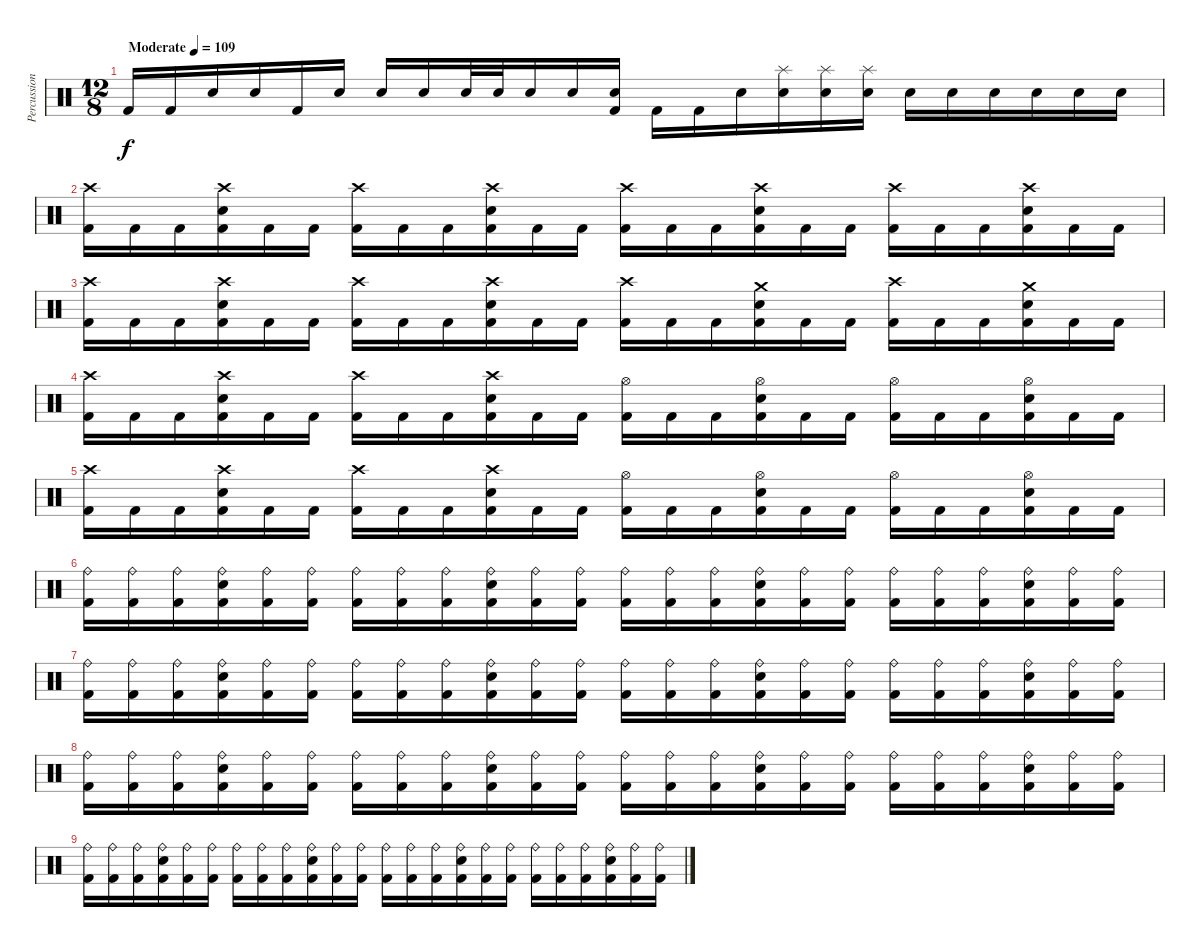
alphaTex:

\track ("Percussion" "Percussion") {instrument percussion}
\staff {score}
\articulation defaults
\ts (12 8)
\tempo (109 "Moderate")
\clef neutral
\ks c "Kick (hit) 2".16{dy f} "Kick (hit) 2".16 "Electric Snare (hit)".16 "Electric Snare (hit)".16 "Kick (hit) 2".16 "Electric Snare (hit)".16 "Electric Snare (hit)".16 "Electric Snare (hit)".16 "Electric Snare (hit)".32 "Electric Snare (hit)".32 "Electric Snare (hit)".16 "Electric Snare (hit)".16
("Electric Snare (hit)" "Kick (hit) 2").16 "Kick (hit) 2".16 "Kick (hit) 2".16 "Electric Snare (hit)".16 ("Splash (hit)" "Electric Snare (hit)").16 ("Splash (hit)" "Electric Snare (hit)").16 ("Splash (hit)" "Electric Snare (hit)").16 "Electric Snare (hit)".16 "Electric Snare (hit)".16 "Electric Snare (hit)".16 "Electric Snare (hit)".16 "Electric Snare (hit)".16 "Electric Snare (hit)".16 |
("Crash high (hit)" "Kick (hit) 2").16 "Kick (hit) 2".16 "Kick (hit) 2".16 ("Crash high (hit)" "Electric Snare (hit)" "Kick (hit) 2").16 "Kick (hit) 2".16 "Kick (hit) 2".16 ("Crash high (hit)" "Kick (hit) 2").16 "Kick (hit) 2".16 "Kick (hit) 2".16 ("Crash high (hit)" "Electric Snare (hit)" "Kick (hit) 2").16 "Kick (hit) 2".16 "Kick (hit) 2".16 ("Crash high (hit)" "Kick (hit) 2").16 "Kick (hit) 2".16 "Kick (hit) 2".16 ("Crash high (hit)" "Electric Snare (hit)" "Kick (hit) 2").16 "Kick (hit) 2".16 "Kick (hit) 2".16 ("Crash high (hit)" "Kick (hit) 2").16 "Kick (hit) 2".16 "Kick (hit) 2".16 ("Crash high (hit)" "Electric Snare (hit)" "Kick (hit) 2").16 "Kick (hit) 2".16 "Kick (hit) 2".16 |
("Crash high (hit)" "Kick (hit) 2").16 "Kick (hit) 2".16 "Kick (hit) 2".16 ("Crash high (hit)" "Electric Snare (hit)" "Kick (hit) 2").16 "Kick (hit) 2".16 "Kick (hit) 2".16 ("Crash high (hit)" "Kick (hit) 2").16 "Kick (hit) 2".16 "Kick (hit) 2".16 ("Crash high (hit)" "Electric Snare (hit)" "Kick (hit) 2").16 "Kick (hit) 2".16 "Kick (hit) 2".16 ("Crash high (hit)" "Kick (hit) 2").16 "Kick (hit) 2".16 "Kick (hit) 2".16 ("Crash medium (hit)" "Electric Snare (hit)" "Kick (hit) 2").16 "Kick (hit) 2".16 "Kick (hit) 2".16 ("Crash high (hit)" "Kick (hit) 2").16 "Kick (hit) 2".16 "Kick (hit) 2".16 ("Crash medium (hit)" "Electric Snare (hit)" "Kick (hit) 2").16 "Kick (hit) 2".16 "Kick (hit) 2".16 |
("Crash high (hit)" "Kick (hit) 2").16 "Kick (hit) 2".16 "Kick (hit) 2".16 ("Crash high (hit)" "Electric Snare (hit)" "Kick (hit) 2").16 "Kick (hit) 2".16 "Kick (hit) 2".16 ("Crash high (hit)" "Kick (hit) 2").16 "Kick (hit) 2".16 "Kick (hit) 2".16 ("Crash high (hit)" "Electric Snare (hit)" "Kick (hit) 2").16 "Kick (hit) 2".16 "Kick (hit) 2".16 ("Hi-Hat (open)" "Kick (hit) 2").16 "Kick (hit) 2".16 "Kick (hit) 2".16 ("Hi-Hat (open)" "Electric Snare (hit)" "Kick (hit) 2").16 "Kick (hit) 2".16 "Kick (hit) 2".16 ("Hi-Hat (open)" "Kick (hit) 2").16 "Kick (hit) 2".16 "Kick (hit) 2".16 ("Hi-Hat (open)" "Electric Snare (hit)" "Kick (hit) 2").16 "Kick (hit) 2".16 "Kick (hit) 2".16 |
("Crash high (hit)" "Kick (hit) 2").16 "Kick (hit) 2".16 "Kick (hit) 2".16 ("Crash high (hit)" "Electric Snare (hit)" "Kick (hit) 2").16 "Kick (hit) 2".16 "Kick (hit) 2".16 ("Crash high (hit)" "Kick (hit) 2").16 "Kick (hit) 2".16 "Kick (hit) 2".16 ("Crash high (hit)" "Electric Snare (hit)" "Kick (hit) 2").16 "Kick (hit) 2".16 "Kick (hit) 2".16 ("Hi-Hat (open)" "Kick (hit) 2").16 "Kick (hit) 2".16 "Kick (hit) 2".16 ("Hi-Hat (open)" "Electric Snare (hit)" "Kick (hit) 2").16 "Kick (hit) 2".16 "Kick (hit) 2".16 ("Hi-Hat (open)" "Kick (hit) 2").16 "Kick (hit) 2".16 "Kick (hit) 2".16 ("Hi-Hat (open)" "Electric Snare (hit)" "Kick (hit) 2").16 "Kick (hit) 2".16 "Kick (hit) 2".16 |
("Ride (bell)" "Kick (hit) 2").16 ("Ride (bell)" "Kick (hit) 2").16 ("Ride (bell)" "Kick (hit) 2").16 ("Ride (bell)" "Electric Snare (hit)" "Kick (hit) 2").16 ("Ride (bell)" "Kick (hit) 2").16 ("Ride (bell)" "Kick (hit) 2").16 ("Ride (bell)" "Kick (hit) 2").16 ("Ride (bell)" "Kick (hit) 2").16 ("Ride (bell)" "Kick (hit) 2").16 ("Ride (bell)" "Electric Snare (hit)" "Kick (hit) 2").16 ("Ride (bell)" "Kick (hit) 2").16 ("Ride (bell)" "Kick (hit) 2").16 ("Ride (bell)" "Kick (hit) 2").16 ("Ride (bell)" "Kick (hit) 2").16 ("Ride (bell)" "Kick (hit) 2").16 ("Ride (bell)" "Electric Snare (hit)" "Kick (hit) 2").16 ("Ride (bell)" "Kick (hit) 2").16 ("Ride (bell)" "Kick (hit) 2").16 ("Ride (bell)" "Kick (hit) 2").16 ("Ride (bell)" "Kick (hit) 2").16 ("Ride (bell)" "Kick (hit) 2").16 ("Ride (bell)" "Electric Snare (hit)" "Kick (hit) 2").16 ("Ride (bell)" "Kick (hit) 2").16 ("Ride (bell)" "Kick (hit) 2").16 |
("Ride (bell)" "Kick (hit) 2").16 ("Ride (bell)" "Kick (hit) 2").16 ("Ride (bell)" "Kick (hit) 2").16 ("Ride (bell)" "Electric Snare (hit)" "Kick (hit) 2").16 ("Ride (bell)" "Kick (hit) 2").16 ("Ride (bell)" "Kick (hit) 2").16 ("Ride (bell)" "Kick (hit) 2").16 ("Ride (bell)" "Kick (hit) 2").16 ("Ride (bell)" "Kick (hit) 2").16 ("Ride (bell)" "Electric Snare (hit)" "Kick (hit) 2").16 ("Ride (bell)" "Kick (hit) 2").16 ("Ride (bell)" "Kick (hit) 2").16 ("Ride (bell)" "Kick (hit) 2").16 ("Ride (bell)" "Kick (hit) 2").16 ("Ride (bell)" "Kick (hit) 2").16 ("Ride (bell)" "Electric Snare (hit)" "Kick (hit) 2").16 ("Ride (bell)" "Kick (hit) 2").16 ("Ride (bell)" "Kick (hit) 2").16 ("Ride (bell)" "Kick (hit) 2").16 ("Ride (bell)" "Kick (hit) 2").16 ("Ride (bell)" "Kick (hit) 2").16 ("Ride (bell)" "Electric Snare (hit)" "Kick (hit) 2").16 ("Ride (bell)" "Kick (hit) 2").16 ("Ride (bell)" "Kick (hit) 2").16 |
("Ride (bell)" "Kick (hit) 2").16 ("Ride (bell)" "Kick (hit) 2").16 ("Ride (bell)" "Kick (hit) 2").16 ("Ride (bell)" "Electric Snare (hit)" "Kick (hit) 2").16 ("Ride (bell)" "Kick (hit) 2").16 ("Ride (bell)" "Kick (hit) 2").16 ("Ride (bell)" "Kick (hit) 2").16 ("Ride (bell)" "Kick (hit) 2").16 ("Ride (bell)" "Kick (hit) 2").16 ("Ride (bell)" "Electric Snare (hit)" "Kick (hit) 2").16 ("Ride (bell)" "Kick (hit) 2").16 ("Ride (bell)" "Kick (hit) 2").16 ("Ride (bell)" "Kick (hit) 2").16 ("Ride (bell)" "Kick (hit) 2").16 ("Ride (bell)" "Kick (hit) 2").16 ("Ride (bell)" "Electric Snare (hit)" "Kick (hit) 2").16 ("Ride (bell)" "Kick (hit) 2").16 ("Ride (bell)" "Kick (hit) 2").16 ("Ride (bell)" "Kick (hit) 2").16 ("Ride (bell)" "Kick (hit) 2").16 ("Ride (bell)" "Kick (hit) 2").16 ("Ride (bell)" "Electric Snare (hit)" "Kick (hit) 2").16 ("Ride (bell)" "Kick (hit) 2").16 ("Ride (bell)" "Kick (hit) 2").16 |
("Ride (bell)" "Kick (hit) 2").16 ("Ride (bell)" "Kick (hit) 2").16 ("Ride (bell)" "Kick (hit) 2").16 ("Ride (bell)" "Electric Snare (hit)" "Kick (hit) 2").16 ("Ride (bell)" "Kick (hit) 2").16 ("Ride (bell)" "Kick (hit) 2").16 ("Ride (bell)" "Kick (hit) 2").16 ("Ride (bell)" "Kick (hit) 2").16 ("Ride (bell)" "Kick (hit) 2").16 ("Ride (bell)" "Electric Snare (hit)" "Kick (hit) 2").16 ("Ride (bell)" "Kick (hit) 2").16 ("Ride (bell)" "Kick (hit) 2").16 ("Ride (bell)" "Kick (hit) 2").16 ("Ride (bell)" "Kick (hit) 2").16 ("Ride (bell)" "Kick (hit) 2").16 ("Ride (bell)" "Electric Snare (hit)" "Kick (hit) 2").16 ("Ride (bell)" "Kick (hit) 2").16 ("Ride (bell)" "Kick (hit) 2").16 ("Ride (bell)" "Kick (hit) 2").16 ("Ride (bell)" "Kick (hit) 2").16 ("Ride (bell)" "Kick (hit) 2").16 ("Ride (bell)" "Electric Snare (hit)" "Kick (hit) 2").16 ("Ride (bell)" "Kick (hit) 2").16 ("Ride (bell)" "Kick (hit) 2").16
